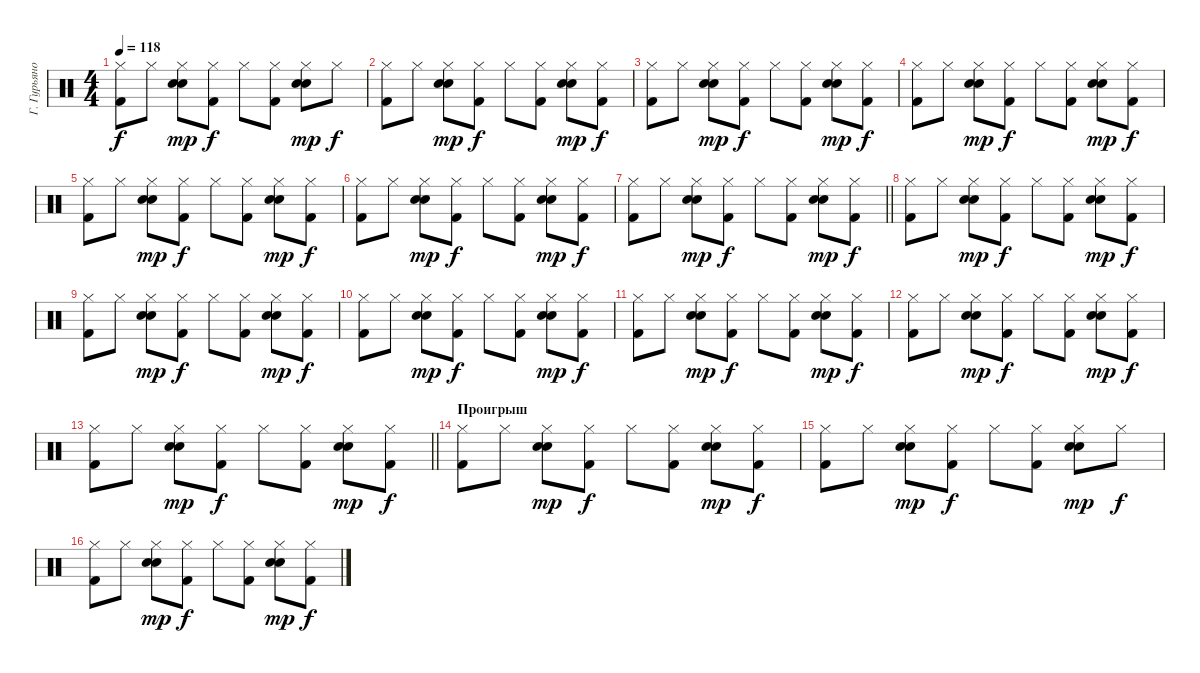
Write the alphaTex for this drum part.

\track ("Г. Гурьянов" "Г. Гурьяно") {instrument percussion}
\staff
\articulation defaults
\ts (4 4)
\tempo 118
\clef neutral
\ks c
("Hi-Hat (closed)" "Kick (hit) 2").8{dy f} "Hi-Hat (closed)".8 ("Hi-Hat (closed)" "Electric Snare (hit)" "Snare (hit) 2").8{dy mp} ("Hi-Hat (closed)" "Kick (hit) 2").8{dy f} "Hi-Hat (closed)".8 ("Hi-Hat (closed)" "Kick (hit) 2").8 ("Hi-Hat (closed)" "Electric Snare (hit)" "Snare (hit) 2").8{dy mp} "Hi-Hat (closed)".8{dy f} |
("Hi-Hat (closed)" "Kick (hit) 2").8 "Hi-Hat (closed)".8 ("Hi-Hat (closed)" "Electric Snare (hit)" "Snare (hit) 2").8{dy mp} ("Hi-Hat (closed)" "Kick (hit) 2").8{dy f} "Hi-Hat (closed)".8 ("Hi-Hat (closed)" "Kick (hit) 2").8 ("Hi-Hat (closed)" "Electric Snare (hit)" "Snare (hit) 2").8{dy mp} ("Hi-Hat (closed)" "Kick (hit) 2").8{dy f} |
("Hi-Hat (closed)" "Kick (hit) 2").8 "Hi-Hat (closed)".8 ("Hi-Hat (closed)" "Electric Snare (hit)" "Snare (hit) 2").8{dy mp} ("Hi-Hat (closed)" "Kick (hit) 2").8{dy f} "Hi-Hat (closed)".8 ("Hi-Hat (closed)" "Kick (hit) 2").8 ("Hi-Hat (closed)" "Electric Snare (hit)" "Snare (hit) 2").8{dy mp} ("Hi-Hat (closed)" "Kick (hit) 2").8{dy f} |
("Hi-Hat (closed)" "Kick (hit) 2").8 "Hi-Hat (closed)".8 ("Hi-Hat (closed)" "Electric Snare (hit)" "Snare (hit) 2").8{dy mp} ("Hi-Hat (closed)" "Kick (hit) 2").8{dy f} "Hi-Hat (closed)".8 ("Hi-Hat (closed)" "Kick (hit) 2").8 ("Hi-Hat (closed)" "Electric Snare (hit)" "Snare (hit) 2").8{dy mp} ("Hi-Hat (closed)" "Kick (hit) 2").8{dy f} |
("Hi-Hat (closed)" "Kick (hit) 2").8 "Hi-Hat (closed)".8 ("Hi-Hat (closed)" "Electric Snare (hit)" "Snare (hit) 2").8{dy mp} ("Hi-Hat (closed)" "Kick (hit) 2").8{dy f} "Hi-Hat (closed)".8 ("Hi-Hat (closed)" "Kick (hit) 2").8 ("Hi-Hat (closed)" "Electric Snare (hit)" "Snare (hit) 2").8{dy mp} ("Hi-Hat (closed)" "Kick (hit) 2").8{dy f} |
("Hi-Hat (closed)" "Kick (hit) 2").8 "Hi-Hat (closed)".8 ("Hi-Hat (closed)" "Electric Snare (hit)" "Snare (hit) 2").8{dy mp} ("Hi-Hat (closed)" "Kick (hit) 2").8{dy f} "Hi-Hat (closed)".8 ("Hi-Hat (closed)" "Kick (hit) 2").8 ("Hi-Hat (closed)" "Electric Snare (hit)" "Snare (hit) 2").8{dy mp} ("Hi-Hat (closed)" "Kick (hit) 2").8{dy f} |
\barLineRight lightlight
("Hi-Hat (closed)" "Kick (hit) 2").8 "Hi-Hat (closed)".8 ("Hi-Hat (closed)" "Electric Snare (hit)" "Snare (hit) 2").8{dy mp} ("Hi-Hat (closed)" "Kick (hit) 2").8{dy f} "Hi-Hat (closed)".8 ("Hi-Hat (closed)" "Kick (hit) 2").8 ("Hi-Hat (closed)" "Electric Snare (hit)" "Snare (hit) 2").8{dy mp} ("Hi-Hat (closed)" "Kick (hit) 2").8{dy f} |
("Hi-Hat (closed)" "Kick (hit) 2").8 "Hi-Hat (closed)".8 ("Hi-Hat (closed)" "Electric Snare (hit)" "Snare (hit) 2").8{dy mp} ("Hi-Hat (closed)" "Kick (hit) 2").8{dy f} "Hi-Hat (closed)".8 ("Hi-Hat (closed)" "Kick (hit) 2").8 ("Hi-Hat (closed)" "Electric Snare (hit)" "Snare (hit) 2").8{dy mp} ("Hi-Hat (closed)" "Kick (hit) 2").8{dy f} |
("Hi-Hat (closed)" "Kick (hit) 2").8 "Hi-Hat (closed)".8 ("Hi-Hat (closed)" "Electric Snare (hit)" "Snare (hit) 2").8{dy mp} ("Hi-Hat (closed)" "Kick (hit) 2").8{dy f} "Hi-Hat (closed)".8 ("Hi-Hat (closed)" "Kick (hit) 2").8 ("Hi-Hat (closed)" "Electric Snare (hit)" "Snare (hit) 2").8{dy mp} ("Hi-Hat (closed)" "Kick (hit) 2").8{dy f} |
("Hi-Hat (closed)" "Kick (hit) 2").8 "Hi-Hat (closed)".8 ("Hi-Hat (closed)" "Electric Snare (hit)" "Snare (hit) 2").8{dy mp} ("Hi-Hat (closed)" "Kick (hit) 2").8{dy f} "Hi-Hat (closed)".8 ("Hi-Hat (closed)" "Kick (hit) 2").8 ("Hi-Hat (closed)" "Electric Snare (hit)" "Snare (hit) 2").8{dy mp} ("Hi-Hat (closed)" "Kick (hit) 2").8{dy f} |
("Hi-Hat (closed)" "Kick (hit) 2").8 "Hi-Hat (closed)".8 ("Hi-Hat (closed)" "Electric Snare (hit)" "Snare (hit) 2").8{dy mp} ("Hi-Hat (closed)" "Kick (hit) 2").8{dy f} "Hi-Hat (closed)".8 ("Hi-Hat (closed)" "Kick (hit) 2").8 ("Hi-Hat (closed)" "Electric Snare (hit)" "Snare (hit) 2").8{dy mp} ("Hi-Hat (closed)" "Kick (hit) 2").8{dy f} |
("Hi-Hat (closed)" "Kick (hit) 2").8 "Hi-Hat (closed)".8 ("Hi-Hat (closed)" "Electric Snare (hit)" "Snare (hit) 2").8{dy mp} ("Hi-Hat (closed)" "Kick (hit) 2").8{dy f} "Hi-Hat (closed)".8 ("Hi-Hat (closed)" "Kick (hit) 2").8 ("Hi-Hat (closed)" "Electric Snare (hit)" "Snare (hit) 2").8{dy mp} ("Hi-Hat (closed)" "Kick (hit) 2").8{dy f} |
\barLineRight lightlight
("Hi-Hat (closed)" "Kick (hit) 2").8 "Hi-Hat (closed)".8 ("Hi-Hat (closed)" "Electric Snare (hit)" "Snare (hit) 2").8{dy mp} ("Hi-Hat (closed)" "Kick (hit) 2").8{dy f} "Hi-Hat (closed)".8 ("Hi-Hat (closed)" "Kick (hit) 2").8 ("Hi-Hat (closed)" "Electric Snare (hit)" "Snare (hit) 2").8{dy mp} ("Hi-Hat (closed)" "Kick (hit) 2").8{dy f} |
\section ("" "Проигрыш")
("Hi-Hat (closed)" "Kick (hit) 2").8 "Hi-Hat (closed)".8 ("Hi-Hat (closed)" "Electric Snare (hit)" "Snare (hit) 2").8{dy mp} ("Hi-Hat (closed)" "Kick (hit) 2").8{dy f} "Hi-Hat (closed)".8 ("Hi-Hat (closed)" "Kick (hit) 2").8 ("Hi-Hat (closed)" "Electric Snare (hit)" "Snare (hit) 2").8{dy mp} ("Hi-Hat (closed)" "Kick (hit) 2").8{dy f} |
("Hi-Hat (closed)" "Kick (hit) 2").8 "Hi-Hat (closed)".8 ("Hi-Hat (closed)" "Electric Snare (hit)" "Snare (hit) 2").8{dy mp} ("Hi-Hat (closed)" "Kick (hit) 2").8{dy f} "Hi-Hat (closed)".8 ("Hi-Hat (closed)" "Kick (hit) 2").8 ("Hi-Hat (closed)" "Electric Snare (hit)" "Snare (hit) 2").8{dy mp} "Hi-Hat (closed)".8{dy f} |
("Hi-Hat (closed)" "Kick (hit) 2").8 "Hi-Hat (closed)".8 ("Hi-Hat (closed)" "Electric Snare (hit)" "Snare (hit) 2").8{dy mp} ("Hi-Hat (closed)" "Kick (hit) 2").8{dy f} "Hi-Hat (closed)".8 ("Hi-Hat (closed)" "Kick (hit) 2").8 ("Hi-Hat (closed)" "Electric Snare (hit)" "Snare (hit) 2").8{dy mp} ("Hi-Hat (closed)" "Kick (hit) 2").8{dy f}
